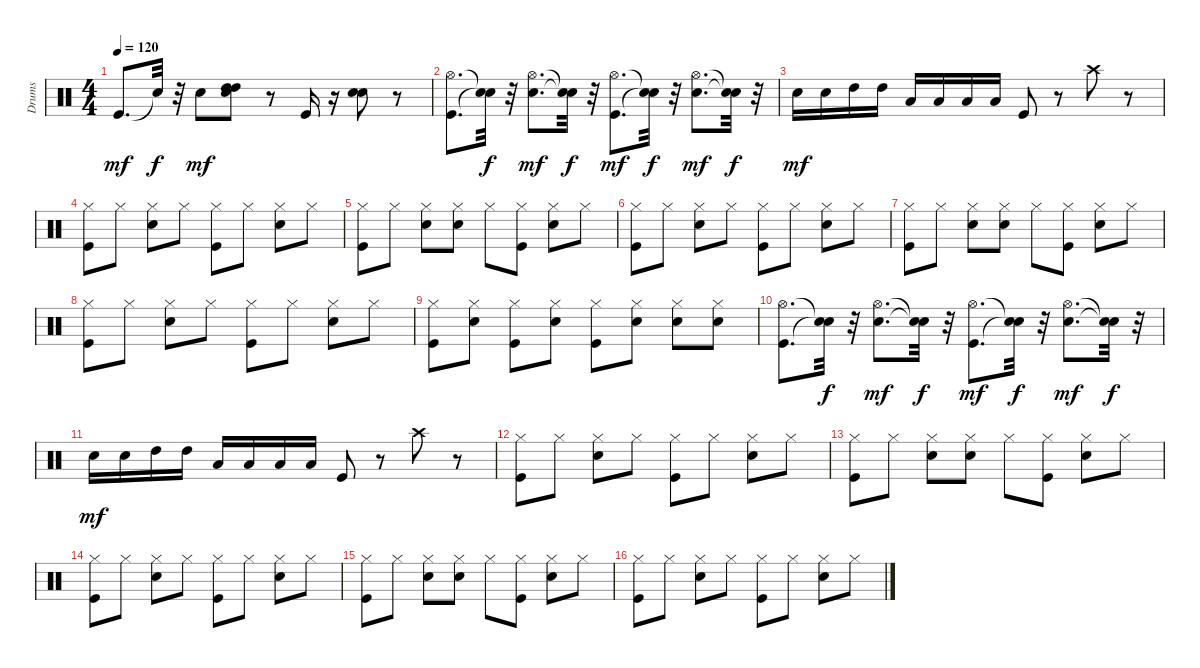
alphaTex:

\track ("Drums" "Drums") {instrument percussion}
\staff {score}
\articulation defaults
\ts (4 4)
\tempo 120
\clef neutral
\ks c "Kick (hit)".8{d dy mf} "Snare (hit)"{t}.32{dy f}
r.32 "Snare (hit) 2".8{dy mf} ("Snare (hit) 2" "High Tom (hit)" "High Tom (hit)").8 r.8 "Kick (hit)".16 r.16 ("Snare (hit) 2" "Snare (hit) 2").8 r.8 |
("Hi-Hat (open)" "Kick (hit)").8{d} ("Snare (hit)"{t} "Snare (hit)"{t}).32{dy f} r.32 ("Hi-Hat (open)" "Snare (hit) 2").8{d dy mf} ("Snare (hit)"{t} "Snare (hit)"{t}).32{dy f} r.32 ("Hi-Hat (open)" "Kick (hit)").8{d dy mf} ("Snare (hit)"{t} "Snare (hit)"{t}).32{dy f} r.32 ("Hi-Hat (open)" "Snare (hit) 2").8{d dy mf} ("Snare (hit)"{t} "Snare (hit)"{t}).32{dy f} r.32 |
"Snare (hit) 2".16{dy mf} "Snare (hit) 2".16 "High Tom (hit)".16 "High Tom (hit)".16 "Low Tom (hit)".16 "Low Tom (hit)".16 "Low Floor Tom (hit)".16 "Low Floor Tom (hit)".16 "Kick (hit)".8 r.8 "Crash high (hit)".8 r.8 |
("Kick (hit)" "Hi-Hat (closed)").8 "Hi-Hat (closed)".8 ("Snare (hit) 2" "Hi-Hat (closed)").8 "Hi-Hat (closed)".8 ("Kick (hit)" "Hi-Hat (closed)").8 "Hi-Hat (closed)".8 ("Snare (hit) 2" "Hi-Hat (closed)").8 "Hi-Hat (closed)".8 |
("Kick (hit)" "Hi-Hat (closed)").8 "Hi-Hat (closed)".8 ("Snare (hit) 2" "Hi-Hat (closed)").8 ("Snare (hit) 2" "Hi-Hat (closed)").8 "Hi-Hat (closed)".8 ("Kick (hit)" "Hi-Hat (closed)").8 ("Snare (hit) 2" "Hi-Hat (closed)").8 "Hi-Hat (closed)".8 |
("Kick (hit)" "Hi-Hat (closed)").8 "Hi-Hat (closed)".8 ("Snare (hit) 2" "Hi-Hat (closed)").8 "Hi-Hat (closed)".8 ("Kick (hit)" "Hi-Hat (closed)").8 "Hi-Hat (closed)".8 ("Snare (hit) 2" "Hi-Hat (closed)").8 "Hi-Hat (closed)".8 |
("Kick (hit)" "Hi-Hat (closed)").8 "Hi-Hat (closed)".8 ("Snare (hit) 2" "Hi-Hat (closed)").8 ("Snare (hit) 2" "Hi-Hat (closed)").8 "Hi-Hat (closed)".8 ("Kick (hit)" "Hi-Hat (closed)").8 ("Snare (hit) 2" "Hi-Hat (closed)").8 "Hi-Hat (closed)".8 |
("Hi-Hat (closed)" "Kick (hit)").8 "Hi-Hat (closed)".8 ("Snare (hit) 2" "Hi-Hat (closed)").8 "Hi-Hat (closed)".8 ("Hi-Hat (closed)" "Kick (hit)").8 "Hi-Hat (closed)".8 ("Snare (hit) 2" "Hi-Hat (closed)").8 "Hi-Hat (closed)".8 |
("Hi-Hat (closed)" "Kick (hit)").8 ("Snare (hit) 2" "Hi-Hat (closed)").8 ("Hi-Hat (closed)" "Kick (hit)").8 ("Snare (hit) 2" "Hi-Hat (closed)").8 ("Hi-Hat (closed)" "Kick (hit)").8 ("Snare (hit) 2" "Hi-Hat (closed)").8 ("Snare (hit) 2" "Hi-Hat (closed)").8 ("Snare (hit) 2" "Hi-Hat (closed)").8 |
("Hi-Hat (open)" "Kick (hit)").8{d} ("Snare (hit)"{t} "Snare (hit)"{t}).32{dy f} r.32 ("Hi-Hat (open)" "Snare (hit) 2").8{d dy mf} ("Snare (hit)"{t} "Snare (hit)"{t}).32{dy f} r.32 ("Hi-Hat (open)" "Kick (hit)").8{d dy mf} ("Snare (hit)"{t} "Snare (hit)"{t}).32{dy f} r.32 ("Hi-Hat (open)" "Snare (hit) 2").8{d dy mf} ("Snare (hit)"{t} "Snare (hit)"{t}).32{dy f} r.32 |
"Snare (hit) 2".16{dy mf} "Snare (hit) 2".16 "High Tom (hit)".16 "High Tom (hit)".16 "Low Tom (hit)".16 "Low Tom (hit)".16 "Low Floor Tom (hit)".16 "Low Floor Tom (hit)".16 "Kick (hit)".8 r.8 "Crash high (hit)".8 r.8 |
("Kick (hit)" "Hi-Hat (closed)").8 "Hi-Hat (closed)".8 ("Snare (hit) 2" "Hi-Hat (closed)").8 "Hi-Hat (closed)".8 ("Kick (hit)" "Hi-Hat (closed)").8 "Hi-Hat (closed)".8 ("Snare (hit) 2" "Hi-Hat (closed)").8 "Hi-Hat (closed)".8 |
("Kick (hit)" "Hi-Hat (closed)").8 "Hi-Hat (closed)".8 ("Snare (hit) 2" "Hi-Hat (closed)").8 ("Snare (hit) 2" "Hi-Hat (closed)").8 "Hi-Hat (closed)".8 ("Kick (hit)" "Hi-Hat (closed)").8 ("Snare (hit) 2" "Hi-Hat (closed)").8 "Hi-Hat (closed)".8 |
("Kick (hit)" "Hi-Hat (closed)").8 "Hi-Hat (closed)".8 ("Snare (hit) 2" "Hi-Hat (closed)").8 "Hi-Hat (closed)".8 ("Kick (hit)" "Hi-Hat (closed)").8 "Hi-Hat (closed)".8 ("Snare (hit) 2" "Hi-Hat (closed)").8 "Hi-Hat (closed)".8 |
("Kick (hit)" "Hi-Hat (closed)").8 "Hi-Hat (closed)".8 ("Snare (hit) 2" "Hi-Hat (closed)").8 ("Snare (hit) 2" "Hi-Hat (closed)").8 "Hi-Hat (closed)".8 ("Kick (hit)" "Hi-Hat (closed)").8 ("Snare (hit) 2" "Hi-Hat (closed)").8 "Hi-Hat (closed)".8 |
("Hi-Hat (closed)" "Kick (hit)").8 "Hi-Hat (closed)".8 ("Snare (hit) 2" "Hi-Hat (closed)").8 "Hi-Hat (closed)".8 ("Hi-Hat (closed)" "Kick (hit)").8 "Hi-Hat (closed)".8 ("Snare (hit) 2" "Hi-Hat (closed)").8 "Hi-Hat (closed)".8
